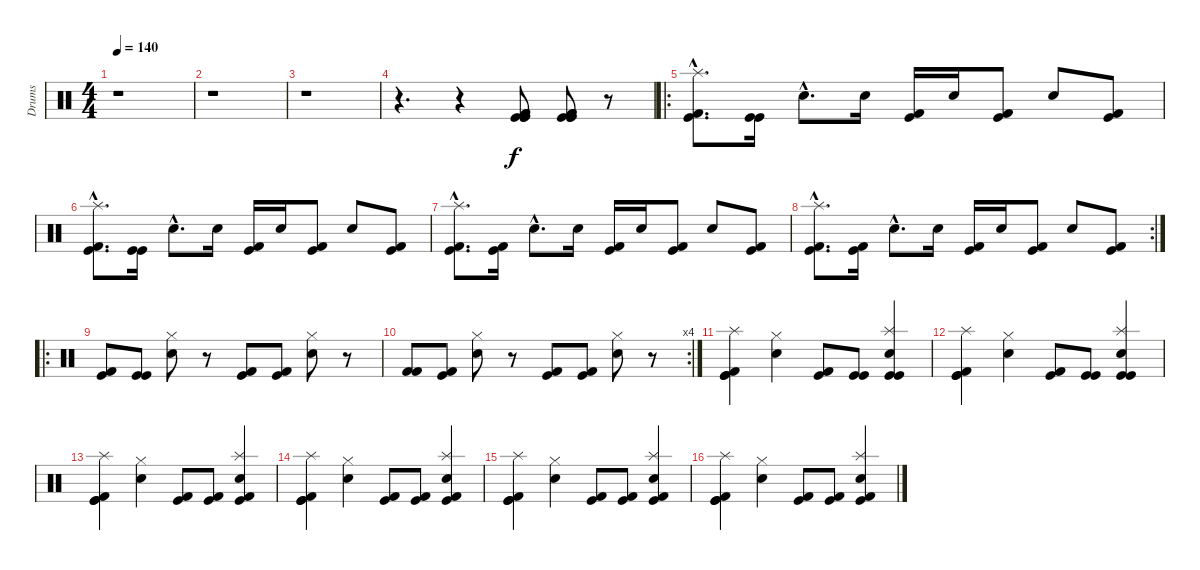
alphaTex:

\track ("Drums" "Drums") {instrument percussion}
\staff {score}
\articulation defaults
\ts (4 4)
\tempo 140
\clef neutral
\ks c
r.1{dy f} |
r.1 |
r.1 |
r.4{d} r.4 ("Kick (hit)" "Kick (hit)" "Kick (hit) 2" "Kick (hit)" "Kick (hit) 2").8 ("Kick (hit) 2" "Kick (hit)" "Kick (hit) 2" "Kick (hit)" "Kick (hit)").8 r.8 |
\ro
("Splash (hit)"{hac} "Kick (hit)"{hac} "Kick (hit) 2"{hac}).8{d} ("Kick (hit)" "Kick (hit)").16 "Snare (hit) 2"{hac}.8{d} "Snare (hit) 2".16 ("Kick (hit)" "Kick (hit) 2").16 "Snare (hit) 2".16 ("Kick (hit)" "Kick (hit) 2").8 "Snare (hit) 2".8 ("Kick (hit) 2" "Kick (hit)").8 |
("Splash (hit)"{hac} "Kick (hit)"{hac} "Kick (hit) 2"{hac}).8{d} ("Kick (hit)" "Kick (hit)").16 "Snare (hit) 2"{hac}.8{d} "Snare (hit) 2".16 ("Kick (hit)" "Kick (hit) 2").16 "Snare (hit) 2".16 ("Kick (hit)" "Kick (hit) 2").8 "Snare (hit) 2".8 ("Kick (hit)" "Kick (hit) 2").8 |
("Splash (hit)"{hac} "Kick (hit)"{hac} "Kick (hit) 2"{hac}).8{d} ("Kick (hit)" "Kick (hit) 2").16 "Snare (hit) 2"{hac}.8{d} "Snare (hit) 2".16 ("Kick (hit)" "Kick (hit) 2").16 "Snare (hit) 2".16 ("Kick (hit)" "Kick (hit) 2").8 "Snare (hit) 2".8 ("Kick (hit)" "Kick (hit) 2").8 |
\rc 2
("Splash (hit)"{hac} "Kick (hit)"{hac} "Kick (hit) 2"{hac}).8{d} ("Kick (hit)" "Kick (hit) 2").16 "Snare (hit) 2"{hac}.8{d} "Snare (hit) 2".16 ("Kick (hit)" "Kick (hit) 2").16 "Snare (hit) 2".16 ("Kick (hit)" "Kick (hit) 2").8 "Snare (hit) 2".8 ("Kick (hit)" "Kick (hit) 2").8 |
\ro
("Kick (hit)" "Kick (hit) 2").8 ("Kick (hit)" "Kick (hit)").8 ("Snare (hit) 2" "Hi-Hat (closed)").8 r.8 ("Kick (hit)" "Kick (hit) 2").8 ("Kick (hit)" "Kick (hit) 2").8 ("Snare (hit) 2" "Hi-Hat (closed)").8 r.8 |
\rc 4
("Kick (hit) 2" "Kick (hit) 2").8 ("Kick (hit)" "Kick (hit) 2").8 ("Snare (hit) 2" "Hi-Hat (closed)").8 r.8 ("Kick (hit)" "Kick (hit) 2").8 ("Kick (hit)" "Kick (hit) 2").8 ("Snare (hit) 2" "Hi-Hat (closed)").8 r.8 |
("Splash (hit)" "Kick (hit)" "Kick (hit)" "Kick (hit) 2").4 ("Hi-Hat (closed)" "Snare (hit) 2").4 ("Kick (hit)" "Kick (hit) 2").8 ("Kick (hit)" "Kick (hit)").8 ("Splash (hit)" "Snare (hit) 2" "Kick (hit)" "Kick (hit)").4 |
("Splash (hit)" "Kick (hit)" "Kick (hit)" "Kick (hit) 2").4 ("Hi-Hat (closed)" "Snare (hit) 2").4 ("Kick (hit)" "Kick (hit) 2").8 ("Kick (hit)" "Kick (hit)").8 ("Splash (hit)" "Snare (hit) 2" "Kick (hit)" "Kick (hit)").4 |
("Splash (hit)" "Kick (hit)" "Kick (hit)" "Kick (hit) 2").4 ("Hi-Hat (closed)" "Snare (hit) 2").4 ("Kick (hit)" "Kick (hit) 2").8 ("Kick (hit)" "Kick (hit) 2").8 ("Splash (hit)" "Snare (hit) 2" "Kick (hit)" "Kick (hit) 2").4 |
("Splash (hit)" "Kick (hit)" "Kick (hit)" "Kick (hit) 2").4 ("Hi-Hat (closed)" "Snare (hit) 2").4 ("Kick (hit)" "Kick (hit) 2").8 ("Kick (hit)" "Kick (hit) 2").8 ("Splash (hit)" "Snare (hit) 2" "Kick (hit)" "Kick (hit) 2").4 |
("Splash (hit)" "Kick (hit)" "Kick (hit)" "Kick (hit) 2").4 ("Hi-Hat (closed)" "Snare (hit) 2").4 ("Kick (hit)" "Kick (hit) 2").8 ("Kick (hit)" "Kick (hit) 2").8 ("Splash (hit)" "Snare (hit) 2" "Kick (hit)" "Kick (hit) 2").4 |
("Splash (hit)" "Kick (hit)" "Kick (hit)" "Kick (hit) 2").4 ("Hi-Hat (closed)" "Snare (hit) 2").4 ("Kick (hit)" "Kick (hit) 2").8 ("Kick (hit)" "Kick (hit) 2").8 ("Splash (hit)" "Snare (hit) 2" "Kick (hit)" "Kick (hit) 2").4
